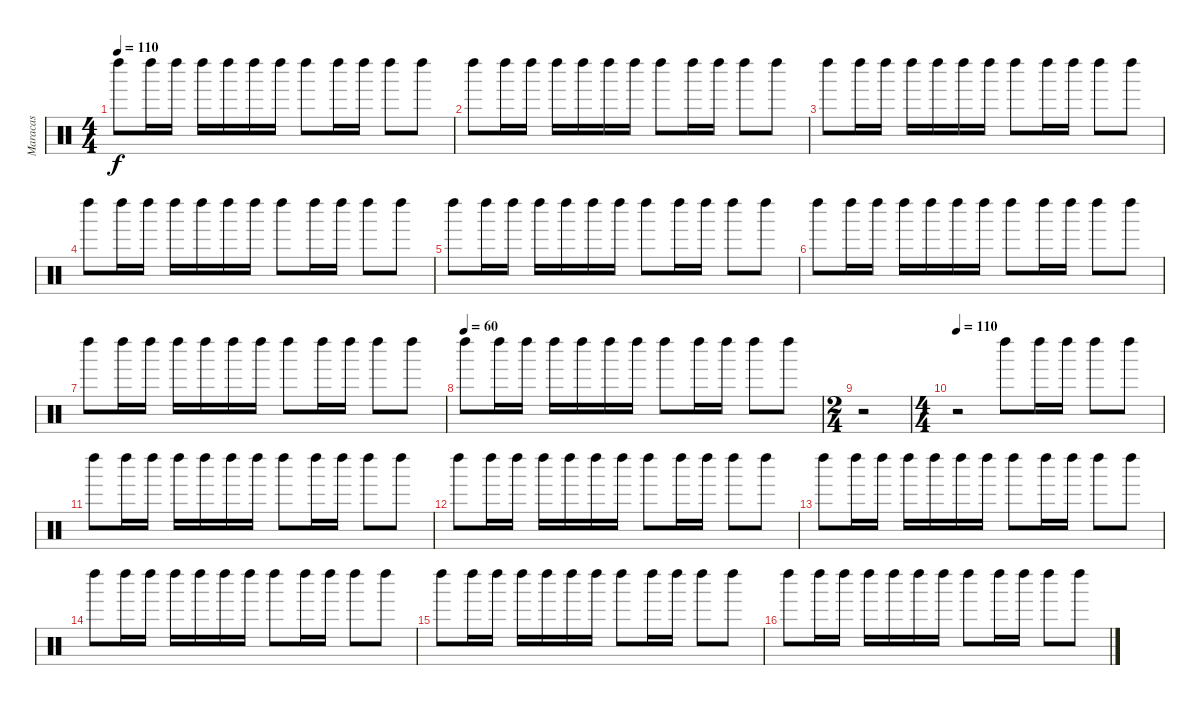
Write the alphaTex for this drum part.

\track ("Maracas" "Maracas") {instrument percussion}
\staff {score}
\articulation defaults
\ts (4 4)
\tempo 110
\clef neutral
\ks c "Left Maraca (hit)".8{dy f} "Left Maraca (hit)".16 "Left Maraca (hit)".16 "Left Maraca (hit)".16 "Left Maraca (hit)".16 "Left Maraca (hit)".16 "Left Maraca (hit)".16 "Left Maraca (hit)".8 "Left Maraca (hit)".16 "Left Maraca (hit)".16 "Left Maraca (hit)".8 "Left Maraca (hit)".8
|
"Left Maraca (hit)".8 "Left Maraca (hit)".16 "Left Maraca (hit)".16 "Left Maraca (hit)".16 "Left Maraca (hit)".16 "Left Maraca (hit)".16 "Left Maraca (hit)".16 "Left Maraca (hit)".8 "Left Maraca (hit)".16 "Left Maraca (hit)".16 "Left Maraca (hit)".8 "Left Maraca (hit)".8 |
"Left Maraca (hit)".8 "Left Maraca (hit)".16 "Left Maraca (hit)".16 "Left Maraca (hit)".16 "Left Maraca (hit)".16 "Left Maraca (hit)".16 "Left Maraca (hit)".16 "Left Maraca (hit)".8 "Left Maraca (hit)".16 "Left Maraca (hit)".16 "Left Maraca (hit)".8 "Left Maraca (hit)".8 |
"Left Maraca (hit)".8 "Left Maraca (hit)".16 "Left Maraca (hit)".16 "Left Maraca (hit)".16 "Left Maraca (hit)".16 "Left Maraca (hit)".16 "Left Maraca (hit)".16 "Left Maraca (hit)".8 "Left Maraca (hit)".16 "Left Maraca (hit)".16 "Left Maraca (hit)".8 "Left Maraca (hit)".8 |
"Left Maraca (hit)".8 "Left Maraca (hit)".16 "Left Maraca (hit)".16 "Left Maraca (hit)".16 "Left Maraca (hit)".16 "Left Maraca (hit)".16 "Left Maraca (hit)".16 "Left Maraca (hit)".8 "Left Maraca (hit)".16 "Left Maraca (hit)".16 "Left Maraca (hit)".8 "Left Maraca (hit)".8 |
"Left Maraca (hit)".8 "Left Maraca (hit)".16 "Left Maraca (hit)".16 "Left Maraca (hit)".16 "Left Maraca (hit)".16 "Left Maraca (hit)".16 "Left Maraca (hit)".16 "Left Maraca (hit)".8 "Left Maraca (hit)".16 "Left Maraca (hit)".16 "Left Maraca (hit)".8 "Left Maraca (hit)".8 |
"Left Maraca (hit)".8 "Left Maraca (hit)".16 "Left Maraca (hit)".16 "Left Maraca (hit)".16 "Left Maraca (hit)".16 "Left Maraca (hit)".16 "Left Maraca (hit)".16 "Left Maraca (hit)".8 "Left Maraca (hit)".16 "Left Maraca (hit)".16 "Left Maraca (hit)".8 "Left Maraca (hit)".8 |
\tempo (60)
"Left Maraca (hit)".8 "Left Maraca (hit)".16 "Left Maraca (hit)".16 "Left Maraca (hit)".16 "Left Maraca (hit)".16 "Left Maraca (hit)".16 "Left Maraca (hit)".16 "Left Maraca (hit)".8 "Left Maraca (hit)".16 "Left Maraca (hit)".16 "Left Maraca (hit)".8 "Left Maraca (hit)".8 |
\ts (2 4)
r.2 |
\ts (4 4)
\tempo 110
r.2 "Left Maraca (hit)".8 "Left Maraca (hit)".16 "Left Maraca (hit)".16 "Left Maraca (hit)".8 "Left Maraca (hit)".8 |
"Left Maraca (hit)".8 "Left Maraca (hit)".16 "Left Maraca (hit)".16 "Left Maraca (hit)".16 "Left Maraca (hit)".16 "Left Maraca (hit)".16 "Left Maraca (hit)".16 "Left Maraca (hit)".8 "Left Maraca (hit)".16 "Left Maraca (hit)".16 "Left Maraca (hit)".8 "Left Maraca (hit)".8 |
"Left Maraca (hit)".8 "Left Maraca (hit)".16 "Left Maraca (hit)".16 "Left Maraca (hit)".16 "Left Maraca (hit)".16 "Left Maraca (hit)".16 "Left Maraca (hit)".16 "Left Maraca (hit)".8 "Left Maraca (hit)".16 "Left Maraca (hit)".16 "Left Maraca (hit)".8 "Left Maraca (hit)".8 |
"Left Maraca (hit)".8 "Left Maraca (hit)".16 "Left Maraca (hit)".16 "Left Maraca (hit)".16 "Left Maraca (hit)".16 "Left Maraca (hit)".16 "Left Maraca (hit)".16 "Left Maraca (hit)".8 "Left Maraca (hit)".16 "Left Maraca (hit)".16 "Left Maraca (hit)".8 "Left Maraca (hit)".8 |
"Left Maraca (hit)".8 "Left Maraca (hit)".16 "Left Maraca (hit)".16 "Left Maraca (hit)".16 "Left Maraca (hit)".16 "Left Maraca (hit)".16 "Left Maraca (hit)".16 "Left Maraca (hit)".8 "Left Maraca (hit)".16 "Left Maraca (hit)".16 "Left Maraca (hit)".8 "Left Maraca (hit)".8 |
"Left Maraca (hit)".8 "Left Maraca (hit)".16 "Left Maraca (hit)".16 "Left Maraca (hit)".16 "Left Maraca (hit)".16 "Left Maraca (hit)".16 "Left Maraca (hit)".16 "Left Maraca (hit)".8 "Left Maraca (hit)".16 "Left Maraca (hit)".16 "Left Maraca (hit)".8 "Left Maraca (hit)".8 |
"Left Maraca (hit)".8 "Left Maraca (hit)".16 "Left Maraca (hit)".16 "Left Maraca (hit)".16 "Left Maraca (hit)".16 "Left Maraca (hit)".16 "Left Maraca (hit)".16 "Left Maraca (hit)".8 "Left Maraca (hit)".16 "Left Maraca (hit)".16 "Left Maraca (hit)".8 "Left Maraca (hit)".8
